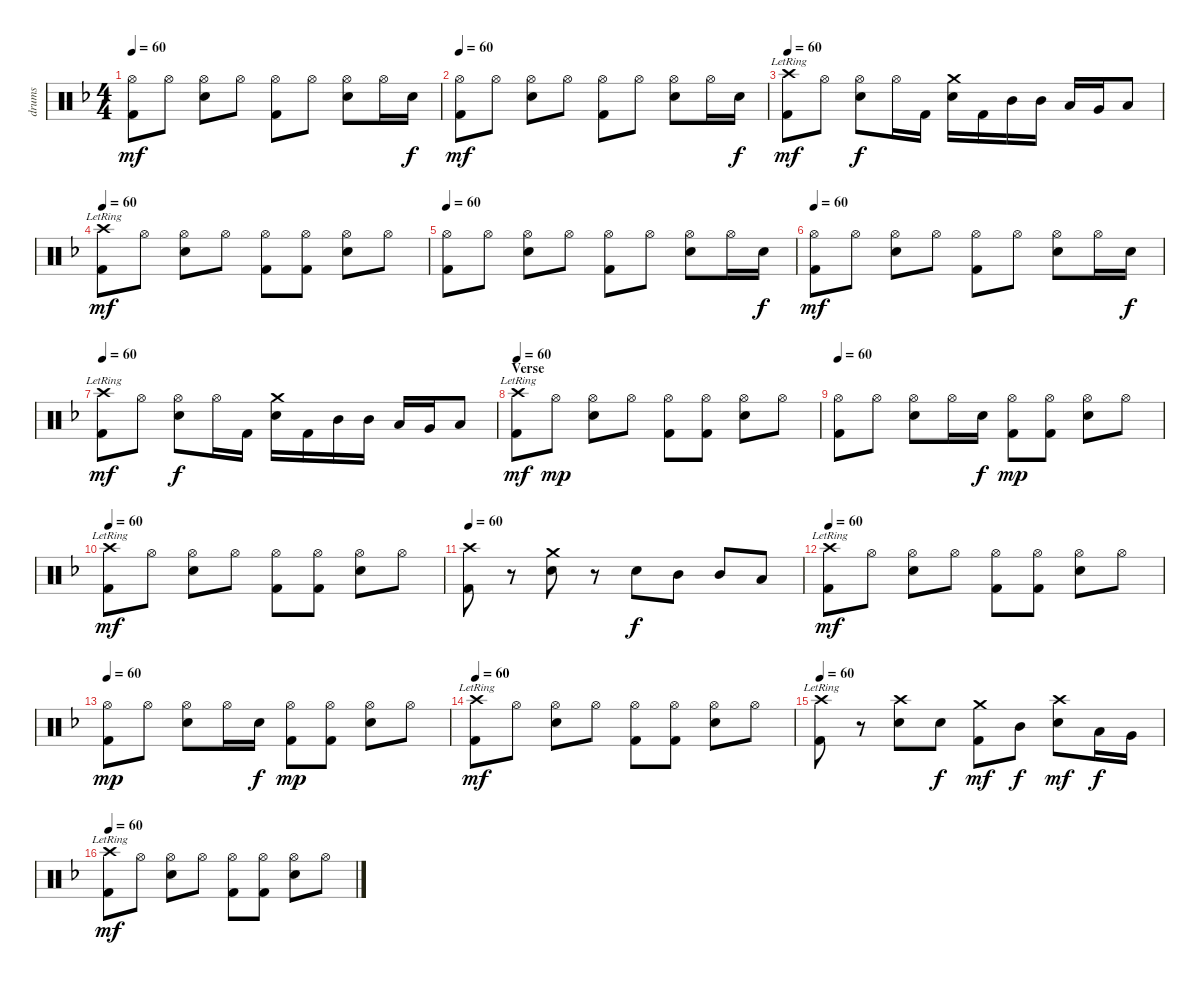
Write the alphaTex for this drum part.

\track ("drums" "drums") {instrument percussion}
\staff {score}
\articulation defaults
\ts (4 4)
\tempo 60
\clef neutral
\ks dminor
("Hi-Hat (open)" "Kick (hit) 2").8{dy mf} "Hi-Hat (open)".8 ("Hi-Hat (open)" "Electric Snare (hit)").8 "Hi-Hat (open)".8 ("Hi-Hat (open)" "Kick (hit) 2").8 "Hi-Hat (open)".8 ("Hi-Hat (open)" "Electric Snare (hit)").8 "Hi-Hat (open)".16 "Electric Snare (hit)".16{dy f} |
\tempo 60
("Hi-Hat (open)" "Kick (hit) 2").8{dy mf} "Hi-Hat (open)".8 ("Hi-Hat (open)" "Electric Snare (hit)").8 "Hi-Hat (open)".8 ("Hi-Hat (open)" "Kick (hit) 2").8 "Hi-Hat (open)".8 ("Hi-Hat (open)" "Electric Snare (hit)").8 "Hi-Hat (open)".16 "Electric Snare (hit)".16{dy f} |
\tempo 60
("Crash high (hit)"{lr} "Kick (hit) 2").8{dy mf} "Hi-Hat (open)".8 ("Hi-Hat (open)" "Electric Snare (hit)").8{dy f} "Hi-Hat (open)".16 "Kick (hit) 2".16 ("Crash medium (hit)" "Electric Snare (hit)").16 "Kick (hit) 2".16 "Mid Tom (hit)".16 "Mid Tom (hit)".16 "Low Tom (hit)".16 "Very Low Tom (hit)".16 "Low Floor Tom (hit)".8 |
\tempo 60
("Crash high (hit)"{lr} "Kick (hit) 2").8{dy mf} "Hi-Hat (open)".8 ("Hi-Hat (open)" "Electric Snare (hit)").8 "Hi-Hat (open)".8 ("Hi-Hat (open)" "Kick (hit) 2").8 ("Hi-Hat (open)" "Kick (hit) 2").8 ("Hi-Hat (open)" "Electric Snare (hit)").8 "Hi-Hat (open)".8 |
\tempo 60
("Hi-Hat (open)" "Kick (hit) 2").8 "Hi-Hat (open)".8 ("Hi-Hat (open)" "Electric Snare (hit)").8 "Hi-Hat (open)".8 ("Hi-Hat (open)" "Kick (hit) 2").8 "Hi-Hat (open)".8 ("Hi-Hat (open)" "Electric Snare (hit)").8 "Hi-Hat (open)".16 "Electric Snare (hit)".16{dy f} |
\tempo 60
("Hi-Hat (open)" "Kick (hit) 2").8{dy mf} "Hi-Hat (open)".8 ("Hi-Hat (open)" "Electric Snare (hit)").8 "Hi-Hat (open)".8 ("Hi-Hat (open)" "Kick (hit) 2").8 "Hi-Hat (open)".8 ("Hi-Hat (open)" "Electric Snare (hit)").8 "Hi-Hat (open)".16 "Electric Snare (hit)".16{dy f} |
\tempo 60
("Crash high (hit)"{lr} "Kick (hit) 2").8{dy mf} "Hi-Hat (open)".8 ("Hi-Hat (open)" "Electric Snare (hit)").8{dy f} "Hi-Hat (open)".16 "Kick (hit) 2".16 ("Crash medium (hit)" "Electric Snare (hit)").16 "Kick (hit) 2".16 "Mid Tom (hit)".16 "Mid Tom (hit)".16 "Low Tom (hit)".16 "Very Low Tom (hit)".16 "Low Floor Tom (hit)".8 |
\section ("" "Verse")
\tempo 60
("Crash high (hit)"{lr} "Kick (hit) 2").8{dy mf} "Hi-Hat (open)".8{dy mp} ("Hi-Hat (open)" "Electric Snare (hit)").8 "Hi-Hat (open)".8 ("Hi-Hat (open)" "Kick (hit) 2").8 ("Hi-Hat (open)" "Kick (hit) 2").8 ("Hi-Hat (open)" "Electric Snare (hit)").8 "Hi-Hat (open)".8 |
\tempo 60
("Hi-Hat (open)" "Kick (hit) 2").8 "Hi-Hat (open)".8 ("Hi-Hat (open)" "Electric Snare (hit)").8 "Hi-Hat (open)".16 "Electric Snare (hit)".16{dy f} ("Hi-Hat (open)" "Kick (hit) 2").8{dy mp} ("Hi-Hat (open)" "Kick (hit) 2").8 ("Hi-Hat (open)" "Electric Snare (hit)").8 "Hi-Hat (open)".8 |
\tempo 60
("Crash high (hit)"{lr} "Kick (hit) 2").8{dy mf} "Hi-Hat (open)".8 ("Hi-Hat (open)" "Electric Snare (hit)").8 "Hi-Hat (open)".8 ("Hi-Hat (open)" "Kick (hit) 2").8 ("Hi-Hat (open)" "Kick (hit) 2").8 ("Hi-Hat (open)" "Electric Snare (hit)").8 "Hi-Hat (open)".8 |
\tempo 60
("Crash high (hit)" "Kick (hit) 2").8 r.8 ("Crash medium (hit)" "Electric Snare (hit)").8 r.8 "Electric Snare (hit)".8{dy f} "Mid Tom (hit)".8 "Mid Tom (hit)".8 "Low Tom (hit)".8 |
\tempo 60
("Crash high (hit)"{lr} "Kick (hit) 2").8{dy mf} "Hi-Hat (open)".8 ("Hi-Hat (open)" "Electric Snare (hit)").8 "Hi-Hat (open)".8 ("Hi-Hat (open)" "Kick (hit) 2").8 ("Hi-Hat (open)" "Kick (hit) 2").8 ("Hi-Hat (open)" "Electric Snare (hit)").8 "Hi-Hat (open)".8 |
\tempo 60
("Hi-Hat (open)" "Kick (hit) 2").8{dy mp} "Hi-Hat (open)".8 ("Hi-Hat (open)" "Electric Snare (hit)").8 "Hi-Hat (open)".16 "Electric Snare (hit)".16{dy f} ("Hi-Hat (open)" "Kick (hit) 2").8{dy mp} ("Hi-Hat (open)" "Kick (hit) 2").8 ("Hi-Hat (open)" "Electric Snare (hit)").8 "Hi-Hat (open)".8 |
\tempo 60
("Crash high (hit)"{lr} "Kick (hit) 2").8{dy mf} "Hi-Hat (open)".8 ("Hi-Hat (open)" "Electric Snare (hit)").8 "Hi-Hat (open)".8 ("Hi-Hat (open)" "Kick (hit) 2").8 ("Hi-Hat (open)" "Kick (hit) 2").8 ("Hi-Hat (open)" "Electric Snare (hit)").8 "Hi-Hat (open)".8 |
\tempo 60
("Crash high (hit)"{lr} "Kick (hit) 2").8 r.8 ("Crash high (hit)" "Electric Snare (hit)").8 "Electric Snare (hit)".8{dy f} ("Crash medium (hit)" "Kick (hit) 2").8{dy mf} "Mid Tom (hit)".8{dy f} ("Crash high (hit)" "Electric Snare (hit)").8{dy mf} "Low Tom (hit)".16{dy f} "Very Low Tom (hit)".16 |
\tempo 60
("Crash high (hit)"{lr} "Kick (hit) 2").8{dy mf} "Hi-Hat (open)".8 ("Hi-Hat (open)" "Electric Snare (hit)").8 "Hi-Hat (open)".8 ("Hi-Hat (open)" "Kick (hit) 2").8 ("Hi-Hat (open)" "Kick (hit) 2").8 ("Hi-Hat (open)" "Electric Snare (hit)").8 "Hi-Hat (open)".8
